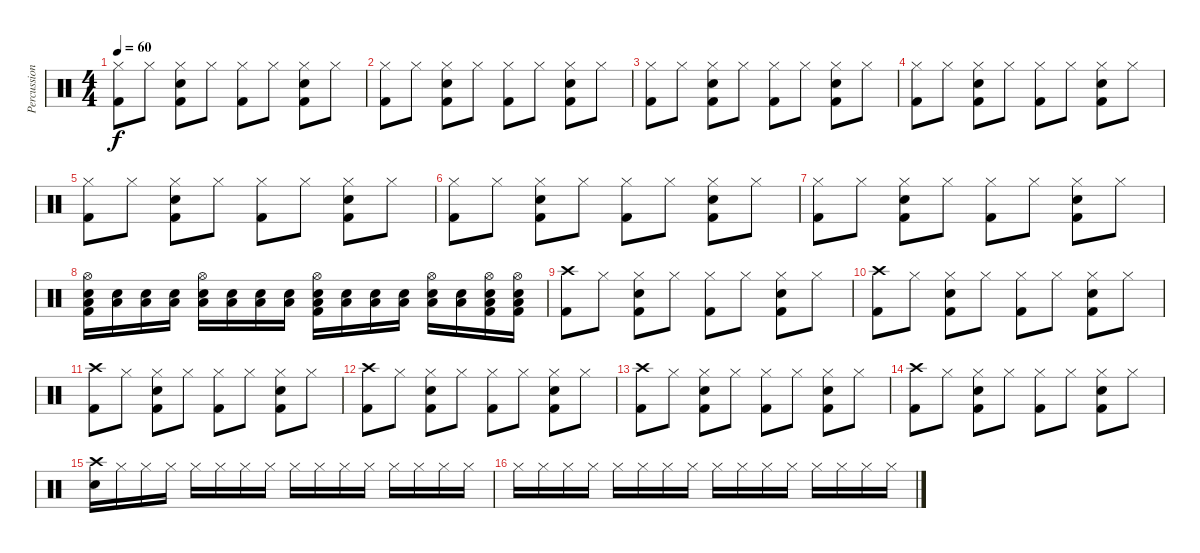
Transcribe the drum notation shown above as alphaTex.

\track ("Percussion" "Percussion") {instrument percussion}
\staff {score}
\articulation defaults
\ts (4 4)
\tempo 60
\clef neutral
\ks c
("Hi-Hat (closed)" "Kick (hit) 2").8{dy f} "Hi-Hat (closed)".8 ("Hi-Hat (closed)" "Electric Snare (hit)" "Kick (hit) 2").8 "Hi-Hat (closed)".8 ("Hi-Hat (closed)" "Kick (hit) 2").8 "Hi-Hat (closed)".8 ("Hi-Hat (closed)" "Electric Snare (hit)" "Kick (hit) 2").8 "Hi-Hat (closed)".8 |
("Hi-Hat (closed)" "Kick (hit) 2").8 "Hi-Hat (closed)".8 ("Hi-Hat (closed)" "Electric Snare (hit)" "Kick (hit) 2").8 "Hi-Hat (closed)".8 ("Hi-Hat (closed)" "Kick (hit) 2").8 "Hi-Hat (closed)".8 ("Hi-Hat (closed)" "Electric Snare (hit)" "Kick (hit) 2").8 "Hi-Hat (closed)".8 |
("Hi-Hat (closed)" "Kick (hit) 2").8 "Hi-Hat (closed)".8 ("Hi-Hat (closed)" "Electric Snare (hit)" "Kick (hit) 2").8 "Hi-Hat (closed)".8 ("Hi-Hat (closed)" "Kick (hit) 2").8 "Hi-Hat (closed)".8 ("Hi-Hat (closed)" "Electric Snare (hit)" "Kick (hit) 2").8 "Hi-Hat (closed)".8 |
("Hi-Hat (closed)" "Kick (hit) 2").8 "Hi-Hat (closed)".8 ("Hi-Hat (closed)" "Electric Snare (hit)" "Kick (hit) 2").8 "Hi-Hat (closed)".8 ("Hi-Hat (closed)" "Kick (hit) 2").8 "Hi-Hat (closed)".8 ("Hi-Hat (closed)" "Electric Snare (hit)" "Kick (hit) 2").8 "Hi-Hat (closed)".8 |
("Hi-Hat (closed)" "Kick (hit) 2").8 "Hi-Hat (closed)".8 ("Hi-Hat (closed)" "Electric Snare (hit)" "Kick (hit) 2").8 "Hi-Hat (closed)".8 ("Hi-Hat (closed)" "Kick (hit) 2").8 "Hi-Hat (closed)".8 ("Hi-Hat (closed)" "Electric Snare (hit)" "Kick (hit) 2").8 "Hi-Hat (closed)".8 |
("Hi-Hat (closed)" "Kick (hit) 2").8 "Hi-Hat (closed)".8 ("Hi-Hat (closed)" "Electric Snare (hit)" "Kick (hit) 2").8 "Hi-Hat (closed)".8 ("Hi-Hat (closed)" "Kick (hit) 2").8 "Hi-Hat (closed)".8 ("Hi-Hat (closed)" "Electric Snare (hit)" "Kick (hit) 2").8 "Hi-Hat (closed)".8 |
("Hi-Hat (closed)" "Kick (hit) 2").8 "Hi-Hat (closed)".8 ("Hi-Hat (closed)" "Electric Snare (hit)" "Kick (hit) 2").8 "Hi-Hat (closed)".8 ("Hi-Hat (closed)" "Kick (hit) 2").8 "Hi-Hat (closed)".8 ("Hi-Hat (closed)" "Electric Snare (hit)" "Kick (hit) 2").8 "Hi-Hat (closed)".8 |
("Low Tom (hit)" "Electric Snare (hit)" "Hi-Hat (open)" "Kick (hit) 2").16{volume 9} ("Low Tom (hit)" "Electric Snare (hit)").16{volume 13} ("Low Tom (hit)" "Electric Snare (hit)").16 ("Low Tom (hit)" "Electric Snare (hit)").16 ("Low Tom (hit)" "Electric Snare (hit)" "Hi-Hat (open)").16 ("Low Tom (hit)" "Electric Snare (hit)").16 ("Low Tom (hit)" "Electric Snare (hit)").16 ("Low Tom (hit)" "Electric Snare (hit)").16 ("Low Tom (hit)" "Electric Snare (hit)" "Hi-Hat (open)" "Kick (hit) 2").16 ("Low Tom (hit)" "Electric Snare (hit)").16 ("Low Tom (hit)" "Electric Snare (hit)").16 ("Low Tom (hit)" "Electric Snare (hit)").16 ("Low Tom (hit)" "Electric Snare (hit)" "Hi-Hat (open)").16 ("Low Tom (hit)" "Electric Snare (hit)").16 ("Low Tom (hit)" "Electric Snare (hit)" "Hi-Hat (open)" "Kick (hit) 2").16 ("Low Tom (hit)" "Electric Snare (hit)" "Hi-Hat (open)" "Kick (hit) 2").16 |
("Crash high (hit)" "Kick (hit) 2").8 "Hi-Hat (closed)".8 ("Hi-Hat (closed)" "Electric Snare (hit)" "Kick (hit) 2").8 "Hi-Hat (closed)".8 ("Hi-Hat (closed)" "Kick (hit) 2").8 "Hi-Hat (closed)".8 ("Hi-Hat (closed)" "Electric Snare (hit)" "Kick (hit) 2").8 "Hi-Hat (closed)".8 |
("Crash high (hit)" "Kick (hit) 2").8 "Hi-Hat (closed)".8 ("Hi-Hat (closed)" "Electric Snare (hit)" "Kick (hit) 2").8 "Hi-Hat (closed)".8 ("Hi-Hat (closed)" "Kick (hit) 2").8 "Hi-Hat (closed)".8 ("Hi-Hat (closed)" "Electric Snare (hit)" "Kick (hit) 2").8 "Hi-Hat (closed)".8 |
("Crash high (hit)" "Kick (hit) 2").8 "Hi-Hat (closed)".8 ("Hi-Hat (closed)" "Electric Snare (hit)" "Kick (hit) 2").8 "Hi-Hat (closed)".8 ("Hi-Hat (closed)" "Kick (hit) 2").8 "Hi-Hat (closed)".8 ("Hi-Hat (closed)" "Electric Snare (hit)" "Kick (hit) 2").8 "Hi-Hat (closed)".8 |
("Crash high (hit)" "Kick (hit) 2").8 "Hi-Hat (closed)".8 ("Hi-Hat (closed)" "Electric Snare (hit)" "Kick (hit) 2").8 "Hi-Hat (closed)".8 ("Hi-Hat (closed)" "Kick (hit) 2").8 "Hi-Hat (closed)".8 ("Hi-Hat (closed)" "Electric Snare (hit)" "Kick (hit) 2").8 "Hi-Hat (closed)".8 |
("Crash high (hit)" "Kick (hit) 2").8 "Hi-Hat (closed)".8 ("Hi-Hat (closed)" "Electric Snare (hit)" "Kick (hit) 2").8 "Hi-Hat (closed)".8 ("Hi-Hat (closed)" "Kick (hit) 2").8 "Hi-Hat (closed)".8 ("Hi-Hat (closed)" "Electric Snare (hit)" "Kick (hit) 2").8 "Hi-Hat (closed)".8 |
("Crash high (hit)" "Kick (hit) 2").8 "Hi-Hat (closed)".8 ("Hi-Hat (closed)" "Electric Snare (hit)" "Kick (hit) 2").8 "Hi-Hat (closed)".8 ("Hi-Hat (closed)" "Kick (hit) 2").8 "Hi-Hat (closed)".8 ("Hi-Hat (closed)" "Electric Snare (hit)" "Kick (hit) 2").8 "Hi-Hat (closed)".8 |
("Crash high (hit)" "Electric Snare (hit)").16 "Hi-Hat (closed)".16 "Hi-Hat (closed)".16 "Hi-Hat (closed)".16 "Hi-Hat (closed)".16 "Hi-Hat (closed)".16 "Hi-Hat (closed)".16{volume 4} "Hi-Hat (closed)".16 "Hi-Hat (closed)".16 "Hi-Hat (closed)".16 "Hi-Hat (closed)".16 "Hi-Hat (closed)".16 "Hi-Hat (closed)".16 "Hi-Hat (closed)".16 "Hi-Hat (closed)".16 "Hi-Hat (closed)".16 |
"Hi-Hat (closed)".16 "Hi-Hat (closed)".16 "Hi-Hat (closed)".16 "Hi-Hat (closed)".16 "Hi-Hat (closed)".16 "Hi-Hat (closed)".16 "Hi-Hat (closed)".16 "Hi-Hat (closed)".16 "Hi-Hat (closed)".16 "Hi-Hat (closed)".16 "Hi-Hat (closed)".16 "Hi-Hat (closed)".16 "Hi-Hat (closed)".16 "Hi-Hat (closed)".16 "Hi-Hat (closed)".16 "Hi-Hat (closed)".16
